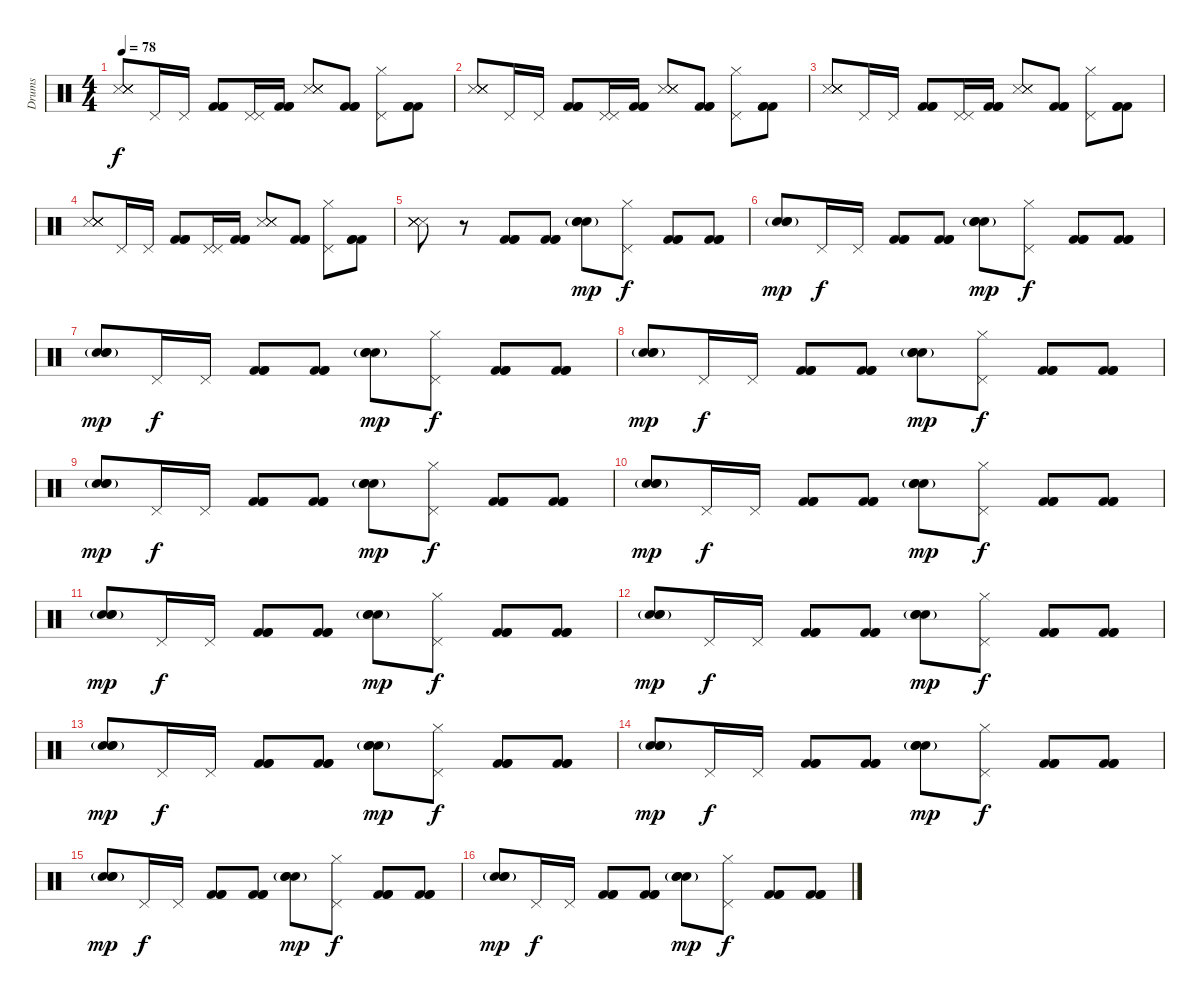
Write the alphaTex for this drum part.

\track ("Drums" "Drums") {instrument percussion}
\staff {score}
\articulation defaults
\ts (4 4)
\tempo 78
\clef neutral
\ks c
("Metronome (hit)" "Metronome (hit)" "Metronome (hit)" "Metronome (hit)" "Snare (side stick) 3").8{dy f} "Pedal Hi-Hat (hit)".16 "Pedal Hi-Hat (hit)".16 ("Kick (hit) 2" "Kick (hit) 2" "Kick (hit) 2").8 ("Pedal Hi-Hat (hit)" "Pedal Hi-Hat (hit)").16 ("Kick (hit) 2" "Kick (hit) 2" "Kick (hit) 2").16 ("Metronome (hit)" "Metronome (hit)" "Metronome (hit)" "Snare (side stick) 3").8 ("Kick (hit) 2" "Kick (hit) 2" "Kick (hit) 2").8 ("Pedal Hi-Hat (hit)" "Hi-Hat (closed)").8 ("Kick (hit) 2" "Kick (hit) 2" "Kick (hit) 2").8 |
("Metronome (hit)" "Metronome (hit)" "Metronome (hit)" "Metronome (hit)" "Snare (side stick) 3").8 "Pedal Hi-Hat (hit)".16 "Pedal Hi-Hat (hit)".16 ("Kick (hit) 2" "Kick (hit) 2" "Kick (hit) 2").8 ("Pedal Hi-Hat (hit)" "Pedal Hi-Hat (hit)").16 ("Kick (hit) 2" "Kick (hit) 2" "Kick (hit) 2").16 ("Metronome (hit)" "Metronome (hit)" "Metronome (hit)" "Snare (side stick) 3").8 ("Kick (hit) 2" "Kick (hit) 2" "Kick (hit) 2").8 ("Pedal Hi-Hat (hit)" "Hi-Hat (closed)").8 ("Kick (hit) 2" "Kick (hit) 2" "Kick (hit) 2").8 |
("Metronome (hit)" "Metronome (hit)" "Metronome (hit)" "Metronome (hit)" "Snare (side stick) 3").8 "Pedal Hi-Hat (hit)".16 "Pedal Hi-Hat (hit)".16 ("Kick (hit) 2" "Kick (hit) 2" "Kick (hit) 2").8 ("Pedal Hi-Hat (hit)" "Pedal Hi-Hat (hit)").16 ("Kick (hit) 2" "Kick (hit) 2" "Kick (hit) 2").16 ("Metronome (hit)" "Metronome (hit)" "Metronome (hit)" "Snare (side stick) 3").8 ("Kick (hit) 2" "Kick (hit) 2" "Kick (hit) 2").8 ("Pedal Hi-Hat (hit)" "Hi-Hat (closed)").8 ("Kick (hit) 2" "Kick (hit) 2" "Kick (hit) 2").8 |
("Metronome (hit)" "Metronome (hit)" "Metronome (hit)" "Metronome (hit)" "Snare (side stick) 3").8 "Pedal Hi-Hat (hit)".16 "Pedal Hi-Hat (hit)".16 ("Kick (hit) 2" "Kick (hit) 2" "Kick (hit) 2").8 ("Pedal Hi-Hat (hit)" "Pedal Hi-Hat (hit)").16 ("Kick (hit) 2" "Kick (hit) 2" "Kick (hit) 2").16 ("Metronome (hit)" "Metronome (hit)" "Metronome (hit)" "Snare (side stick) 3").8 ("Kick (hit) 2" "Kick (hit) 2" "Kick (hit) 2").8 ("Pedal Hi-Hat (hit)" "Hi-Hat (closed)").8 ("Kick (hit) 2" "Kick (hit) 2" "Kick (hit) 2").8 |
("Metronome (hit)" "Metronome (hit)" "Metronome (hit)" "Metronome (hit)" "Snare (side stick) 3").8 r.8 ("Kick (hit) 2" "Kick (hit) 2" "Kick (hit) 2").8 ("Kick (hit) 2" "Kick (hit) 2" "Kick (hit) 2").8 ("Electric Snare (hit)" "Electric Snare (hit)" "Snare (hit) 2"{g}).8{dy mp} ("Pedal Hi-Hat (hit)" "Hi-Hat (closed)").8{dy f} ("Kick (hit) 2" "Kick (hit) 2" "Kick (hit) 2").8 ("Kick (hit) 2" "Kick (hit) 2" "Kick (hit) 2").8 |
("Electric Snare (hit)" "Electric Snare (hit)" "Snare (hit) 2"{g}).8{dy mp} "Pedal Hi-Hat (hit)".16{dy f} "Pedal Hi-Hat (hit)".16 ("Kick (hit) 2" "Kick (hit) 2" "Kick (hit) 2").8 ("Kick (hit) 2" "Kick (hit) 2" "Kick (hit) 2").8 ("Electric Snare (hit)" "Electric Snare (hit)" "Snare (hit) 2"{g}).8{dy mp} ("Pedal Hi-Hat (hit)" "Hi-Hat (closed)").8{dy f} ("Kick (hit) 2" "Kick (hit) 2" "Kick (hit) 2").8 ("Kick (hit) 2" "Kick (hit) 2" "Kick (hit) 2").8 |
("Electric Snare (hit)" "Electric Snare (hit)" "Snare (hit) 2"{g}).8{dy mp} "Pedal Hi-Hat (hit)".16{dy f} "Pedal Hi-Hat (hit)".16 ("Kick (hit) 2" "Kick (hit) 2" "Kick (hit) 2").8 ("Kick (hit) 2" "Kick (hit) 2" "Kick (hit) 2").8 ("Electric Snare (hit)" "Electric Snare (hit)" "Snare (hit) 2"{g}).8{dy mp} ("Pedal Hi-Hat (hit)" "Hi-Hat (closed)").8{dy f} ("Kick (hit) 2" "Kick (hit) 2" "Kick (hit) 2").8 ("Kick (hit) 2" "Kick (hit) 2" "Kick (hit) 2").8 |
("Electric Snare (hit)" "Electric Snare (hit)" "Snare (hit) 2"{g}).8{dy mp} "Pedal Hi-Hat (hit)".16{dy f} "Pedal Hi-Hat (hit)".16 ("Kick (hit) 2" "Kick (hit) 2" "Kick (hit) 2").8 ("Kick (hit) 2" "Kick (hit) 2" "Kick (hit) 2").8 ("Electric Snare (hit)" "Electric Snare (hit)" "Snare (hit) 2"{g}).8{dy mp} ("Pedal Hi-Hat (hit)" "Hi-Hat (closed)").8{dy f} ("Kick (hit) 2" "Kick (hit) 2" "Kick (hit) 2").8 ("Kick (hit) 2" "Kick (hit) 2" "Kick (hit) 2").8 |
("Electric Snare (hit)" "Electric Snare (hit)" "Snare (hit) 2"{g}).8{dy mp} "Pedal Hi-Hat (hit)".16{dy f} "Pedal Hi-Hat (hit)".16 ("Kick (hit) 2" "Kick (hit) 2" "Kick (hit) 2").8 ("Kick (hit) 2" "Kick (hit) 2" "Kick (hit) 2").8 ("Electric Snare (hit)" "Electric Snare (hit)" "Snare (hit) 2"{g}).8{dy mp} ("Pedal Hi-Hat (hit)" "Hi-Hat (closed)").8{dy f} ("Kick (hit) 2" "Kick (hit) 2" "Kick (hit) 2").8 ("Kick (hit) 2" "Kick (hit) 2" "Kick (hit) 2").8 |
("Electric Snare (hit)" "Electric Snare (hit)" "Snare (hit) 2"{g}).8{dy mp} "Pedal Hi-Hat (hit)".16{dy f} "Pedal Hi-Hat (hit)".16 ("Kick (hit) 2" "Kick (hit) 2" "Kick (hit) 2").8 ("Kick (hit) 2" "Kick (hit) 2" "Kick (hit) 2").8 ("Electric Snare (hit)" "Electric Snare (hit)" "Snare (hit) 2"{g}).8{dy mp} ("Pedal Hi-Hat (hit)" "Hi-Hat (closed)").8{dy f} ("Kick (hit) 2" "Kick (hit) 2" "Kick (hit) 2").8 ("Kick (hit) 2" "Kick (hit) 2" "Kick (hit) 2").8 |
("Electric Snare (hit)" "Electric Snare (hit)" "Snare (hit) 2"{g}).8{dy mp} "Pedal Hi-Hat (hit)".16{dy f} "Pedal Hi-Hat (hit)".16 ("Kick (hit) 2" "Kick (hit) 2" "Kick (hit) 2").8 ("Kick (hit) 2" "Kick (hit) 2" "Kick (hit) 2").8 ("Electric Snare (hit)" "Electric Snare (hit)" "Snare (hit) 2"{g}).8{dy mp} ("Pedal Hi-Hat (hit)" "Hi-Hat (closed)").8{dy f} ("Kick (hit) 2" "Kick (hit) 2" "Kick (hit) 2").8 ("Kick (hit) 2" "Kick (hit) 2" "Kick (hit) 2").8 |
("Electric Snare (hit)" "Electric Snare (hit)" "Snare (hit) 2"{g}).8{dy mp} "Pedal Hi-Hat (hit)".16{dy f} "Pedal Hi-Hat (hit)".16 ("Kick (hit) 2" "Kick (hit) 2" "Kick (hit) 2").8 ("Kick (hit) 2" "Kick (hit) 2" "Kick (hit) 2").8 ("Electric Snare (hit)" "Electric Snare (hit)" "Snare (hit) 2"{g}).8{dy mp} ("Pedal Hi-Hat (hit)" "Hi-Hat (closed)").8{dy f} ("Kick (hit) 2" "Kick (hit) 2" "Kick (hit) 2").8 ("Kick (hit) 2" "Kick (hit) 2" "Kick (hit) 2").8 |
("Electric Snare (hit)" "Electric Snare (hit)" "Snare (hit) 2"{g}).8{dy mp} "Pedal Hi-Hat (hit)".16{dy f} "Pedal Hi-Hat (hit)".16 ("Kick (hit) 2" "Kick (hit) 2" "Kick (hit) 2").8 ("Kick (hit) 2" "Kick (hit) 2" "Kick (hit) 2").8 ("Electric Snare (hit)" "Electric Snare (hit)" "Snare (hit) 2"{g}).8{dy mp} ("Pedal Hi-Hat (hit)" "Hi-Hat (closed)").8{dy f} ("Kick (hit) 2" "Kick (hit) 2" "Kick (hit) 2").8 ("Kick (hit) 2" "Kick (hit) 2" "Kick (hit) 2").8 |
("Electric Snare (hit)" "Electric Snare (hit)" "Snare (hit) 2"{g}).8{dy mp} "Pedal Hi-Hat (hit)".16{dy f} "Pedal Hi-Hat (hit)".16 ("Kick (hit) 2" "Kick (hit) 2" "Kick (hit) 2").8 ("Kick (hit) 2" "Kick (hit) 2" "Kick (hit) 2").8 ("Electric Snare (hit)" "Electric Snare (hit)" "Snare (hit) 2"{g}).8{dy mp} ("Pedal Hi-Hat (hit)" "Hi-Hat (closed)").8{dy f} ("Kick (hit) 2" "Kick (hit) 2" "Kick (hit) 2").8 ("Kick (hit) 2" "Kick (hit) 2" "Kick (hit) 2").8 |
("Electric Snare (hit)" "Electric Snare (hit)" "Snare (hit) 2"{g}).8{dy mp} "Pedal Hi-Hat (hit)".16{dy f} "Pedal Hi-Hat (hit)".16 ("Kick (hit) 2" "Kick (hit) 2" "Kick (hit) 2").8 ("Kick (hit) 2" "Kick (hit) 2" "Kick (hit) 2").8 ("Electric Snare (hit)" "Electric Snare (hit)" "Snare (hit) 2"{g}).8{dy mp} ("Pedal Hi-Hat (hit)" "Hi-Hat (closed)").8{dy f} ("Kick (hit) 2" "Kick (hit) 2" "Kick (hit) 2").8 ("Kick (hit) 2" "Kick (hit) 2" "Kick (hit) 2").8 |
("Electric Snare (hit)" "Electric Snare (hit)" "Snare (hit) 2"{g}).8{dy mp} "Pedal Hi-Hat (hit)".16{dy f} "Pedal Hi-Hat (hit)".16 ("Kick (hit) 2" "Kick (hit) 2" "Kick (hit) 2").8 ("Kick (hit) 2" "Kick (hit) 2" "Kick (hit) 2").8 ("Electric Snare (hit)" "Electric Snare (hit)" "Snare (hit) 2"{g}).8{dy mp} ("Pedal Hi-Hat (hit)" "Hi-Hat (closed)").8{dy f} ("Kick (hit) 2" "Kick (hit) 2" "Kick (hit) 2").8 ("Kick (hit) 2" "Kick (hit) 2" "Kick (hit) 2").8
